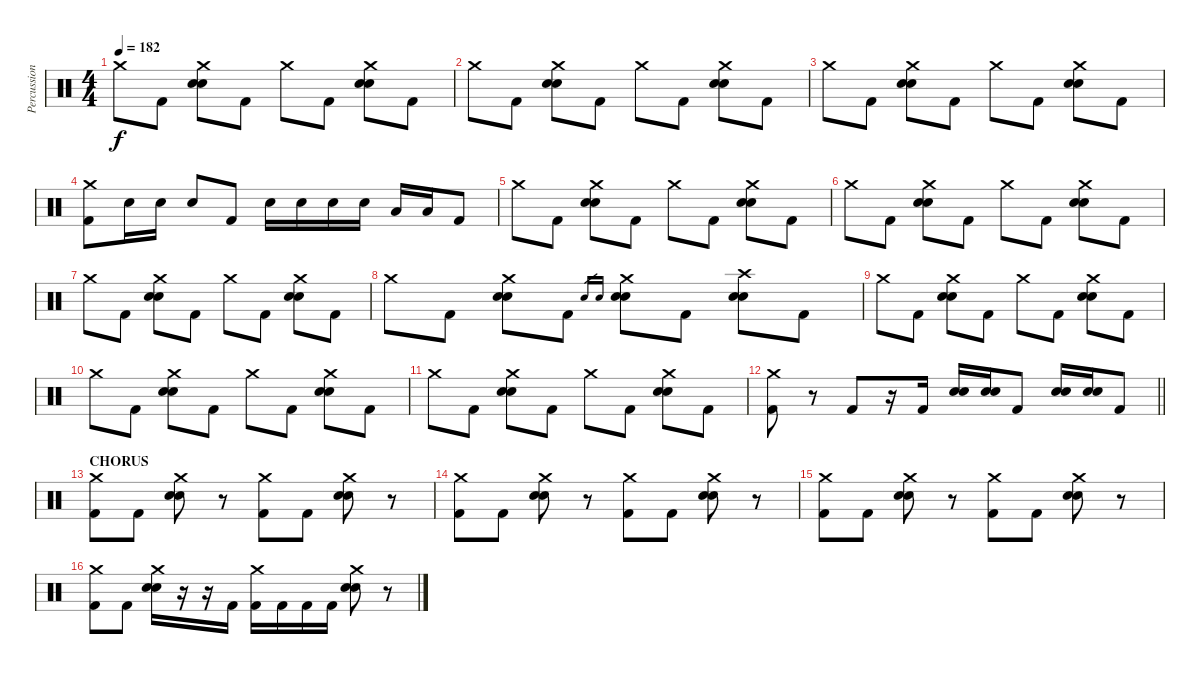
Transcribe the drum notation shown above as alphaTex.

\track ("Percussion" "Percussion") {instrument percussion}
\staff {score}
\articulation defaults
\ts (4 4)
\tempo 182
\clef neutral
\ks c "Crash medium (hit)".8{dy f} "Kick (hit) 2".8
("Crash medium (hit)" "Snare (hit) 2" "Electric Snare (hit)").8 "Kick (hit) 2".8 "Crash medium (hit)".8 "Kick (hit) 2".8 ("Crash medium (hit)" "Snare (hit) 2" "Electric Snare (hit)").8 "Kick (hit) 2".8 |
"Crash medium (hit)".8 "Kick (hit) 2".8 ("Crash medium (hit)" "Snare (hit) 2" "Electric Snare (hit)").8 "Kick (hit) 2".8 "Crash medium (hit)".8 "Kick (hit) 2".8 ("Crash medium (hit)" "Snare (hit) 2" "Electric Snare (hit)").8 "Kick (hit) 2".8 |
"Crash medium (hit)".8 "Kick (hit) 2".8 ("Crash medium (hit)" "Snare (hit) 2" "Electric Snare (hit)").8 "Kick (hit) 2".8 "Crash medium (hit)".8 "Kick (hit) 2".8 ("Crash medium (hit)" "Snare (hit) 2" "Electric Snare (hit)").8 "Kick (hit) 2".8 |
("Crash medium (hit)" "Kick (hit) 2").8 "Snare (hit) 2".16 "Snare (hit) 2".16 "Snare (hit) 2".8 "Kick (hit) 2".8 "Snare (hit) 2".16 "Snare (hit) 2".16 "Snare (hit) 2".16 "Snare (hit) 2".16 "Low Floor Tom (hit)".16 "Low Floor Tom (hit)".16 "Kick (hit) 2".8 |
"Crash medium (hit)".8 "Kick (hit) 2".8 ("Crash medium (hit)" "Snare (hit) 2" "Electric Snare (hit)").8 "Kick (hit) 2".8 "Crash medium (hit)".8 "Kick (hit) 2".8 ("Crash medium (hit)" "Snare (hit) 2" "Electric Snare (hit)").8 "Kick (hit) 2".8 |
"Crash medium (hit)".8 "Kick (hit) 2".8 ("Crash medium (hit)" "Snare (hit) 2" "Electric Snare (hit)").8 "Kick (hit) 2".8 "Crash medium (hit)".8 "Kick (hit) 2".8 ("Crash medium (hit)" "Snare (hit) 2" "Electric Snare (hit)").8 "Kick (hit) 2".8 |
"Crash medium (hit)".8 "Kick (hit) 2".8 ("Crash medium (hit)" "Snare (hit) 2" "Electric Snare (hit)").8 "Kick (hit) 2".8 "Crash medium (hit)".8 "Kick (hit) 2".8 ("Crash medium (hit)" "Snare (hit) 2" "Electric Snare (hit)").8 "Kick (hit) 2".8 |
"Crash medium (hit)".8 "Kick (hit) 2".8 ("Crash medium (hit)" "Snare (hit) 2" "Electric Snare (hit)").8 "Kick (hit) 2".8 "Snare (hit) 2".16{gr} "Electric Snare (hit)".16{gr} ("Crash medium (hit)" "Snare (hit) 2" "Electric Snare (hit)").8 "Kick (hit) 2".8 ("Crash high (hit)" "Snare (hit) 2" "Electric Snare (hit)").8 "Kick (hit) 2".8 |
"Crash medium (hit)".8 "Kick (hit) 2".8 ("Crash medium (hit)" "Snare (hit) 2" "Electric Snare (hit)").8 "Kick (hit) 2".8 "Crash medium (hit)".8 "Kick (hit) 2".8 ("Crash medium (hit)" "Snare (hit) 2" "Electric Snare (hit)").8 "Kick (hit) 2".8 |
"Crash medium (hit)".8 "Kick (hit) 2".8 ("Crash medium (hit)" "Snare (hit) 2" "Electric Snare (hit)").8 "Kick (hit) 2".8 "Crash medium (hit)".8 "Kick (hit) 2".8 ("Crash medium (hit)" "Snare (hit) 2" "Electric Snare (hit)").8 "Kick (hit) 2".8 |
"Crash medium (hit)".8 "Kick (hit) 2".8 ("Crash medium (hit)" "Snare (hit) 2" "Electric Snare (hit)").8 "Kick (hit) 2".8 "Crash medium (hit)".8 "Kick (hit) 2".8 ("Crash medium (hit)" "Snare (hit) 2" "Electric Snare (hit)").8 "Kick (hit) 2".8 |
\barLineRight lightlight
("Crash medium (hit)" "Kick (hit) 2").8 r.8 "Kick (hit) 2".8 r.16 "Kick (hit) 2".16 ("Snare (hit) 2" "Electric Snare (hit)").16 ("Snare (hit) 2" "Electric Snare (hit)").16 "Kick (hit) 2".8 ("Snare (hit) 2" "Electric Snare (hit)").16 ("Snare (hit) 2" "Electric Snare (hit)").16 "Kick (hit) 2".8 |
\section ("" "CHORUS")
("Crash medium (hit)" "Kick (hit) 2").8 "Kick (hit) 2".8 ("Crash medium (hit)" "Snare (hit) 2" "Electric Snare (hit)").8 r.8 ("Crash medium (hit)" "Kick (hit) 2").8 "Kick (hit) 2".8 ("Crash medium (hit)" "Snare (hit) 2" "Electric Snare (hit)").8 r.8 |
("Crash medium (hit)" "Kick (hit) 2").8 "Kick (hit) 2".8 ("Crash medium (hit)" "Snare (hit) 2" "Electric Snare (hit)").8 r.8 ("Crash medium (hit)" "Kick (hit) 2").8 "Kick (hit) 2".8 ("Crash medium (hit)" "Snare (hit) 2" "Electric Snare (hit)").8 r.8 |
("Crash medium (hit)" "Kick (hit) 2").8 "Kick (hit) 2".8 ("Crash medium (hit)" "Snare (hit) 2" "Electric Snare (hit)").8 r.8 ("Crash medium (hit)" "Kick (hit) 2").8 "Kick (hit) 2".8 ("Crash medium (hit)" "Snare (hit) 2" "Electric Snare (hit)").8 r.8 |
("Crash medium (hit)" "Kick (hit) 2").8 "Kick (hit) 2".8 ("Crash medium (hit)" "Snare (hit) 2" "Electric Snare (hit)").16 r.16 r.16 "Kick (hit) 2".16 ("Crash medium (hit)" "Kick (hit) 2").16 "Kick (hit) 2".16 "Kick (hit) 2".16 "Kick (hit) 2".16 ("Crash medium (hit)" "Snare (hit) 2" "Electric Snare (hit)").8 r.8
